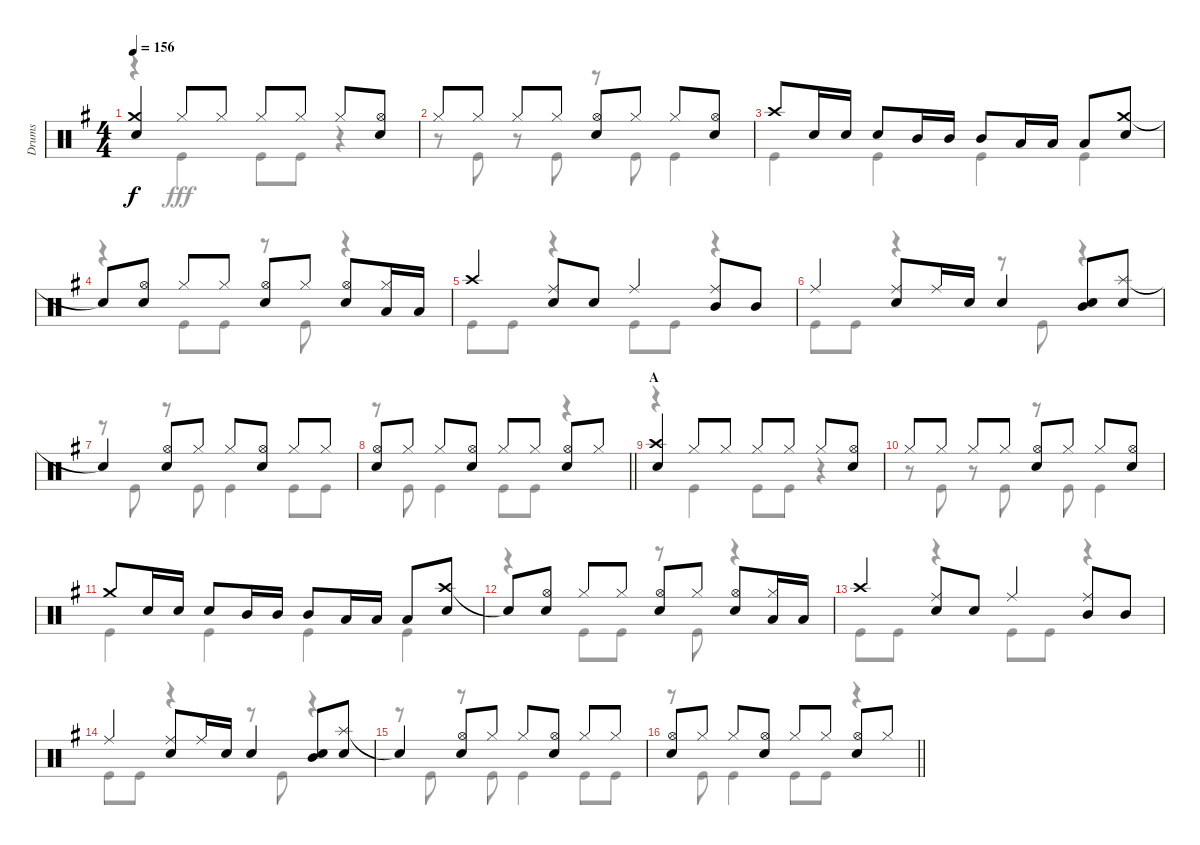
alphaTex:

\track ("Drums" "Drums") {instrument percussion}
\staff {score}
\articulation defaults
\voice
\ts (4 4)
\tempo 156
\clef neutral
\ks g
("Crash medium (hit)" "Snare (hit) 2").4{dy f} "Hi-Hat (closed)".8 "Hi-Hat (closed)".8 "Hi-Hat (closed)".8 "Hi-Hat (closed)".8 "Hi-Hat (closed)".8 ("Hi-Hat (open)" "Snare (hit) 2").8 |
"Hi-Hat (closed)".8 "Hi-Hat (closed)".8 "Hi-Hat (closed)".8 "Hi-Hat (closed)".8 ("Hi-Hat (open)" "Snare (hit) 2").8 "Hi-Hat (closed)".8 "Hi-Hat (closed)".8 ("Hi-Hat (open)" "Snare (hit) 2").8 |
"Crash high (hit)".8 "Snare (hit) 2".16 "Snare (hit) 2".16 "Snare (hit) 2".8 "Mid Tom (hit)".16 "Mid Tom (hit)".16 "Mid Tom (hit)".8 "Low Tom (hit)".16 "Low Tom (hit)".16 "Low Tom (hit)".8 ("Crash medium (hit)" "Snare (hit) 2").8 |
"Snare (hit)"{t}.8 ("Hi-Hat (open)" "Snare (hit) 2").8 "Hi-Hat (closed)".8 "Hi-Hat (closed)".8 ("Hi-Hat (open)" "Snare (hit) 2").8 "Hi-Hat (closed)".8 ("Hi-Hat (open)" "Snare (hit) 2").8 ("Hi-Hat (closed)" "Low Tom (hit)").16 "Low Tom (hit)".16 |
"Crash high (hit)".4 ("Ride (middle)" "Snare (hit) 2").8 "Snare (hit) 2".8 "Ride (middle)".4 ("Ride (middle)" "Mid Tom (hit)").8 "Mid Tom (hit)".8 |
"Ride (middle)".4 ("Ride (middle)" "Snare (hit) 2").8 "Ride (middle)".16 "Snare (hit) 2".16 "Snare (hit) 2".4 ("Mid Tom (hit)" "Snare (hit) 2").8 ("Splash (hit)" "Snare (hit) 2").8 |
"Snare (hit)"{t}.4 ("Hi-Hat (open)" "Snare (hit) 2").8 "Hi-Hat (closed)".8 "Hi-Hat (closed)".8 ("Hi-Hat (open)" "Snare (hit) 2").8 "Hi-Hat (closed)".8 "Hi-Hat (closed)".8 |
\barLineRight lightlight
("Hi-Hat (open)" "Snare (hit) 2").8 "Hi-Hat (closed)".8 "Hi-Hat (closed)".8 ("Hi-Hat (open)" "Snare (hit) 2").8 "Hi-Hat (closed)".8 "Hi-Hat (closed)".8 ("Hi-Hat (open)" "Snare (hit) 2").8 "Hi-Hat (closed)".8 |
\section ("" "A")
("Crash high (hit)" "Snare (hit) 2").4 "Hi-Hat (closed)".8 "Hi-Hat (closed)".8 "Hi-Hat (closed)".8 "Hi-Hat (closed)".8 "Hi-Hat (closed)".8 ("Hi-Hat (open)" "Snare (hit) 2").8 |
"Hi-Hat (closed)".8 "Hi-Hat (closed)".8 "Hi-Hat (closed)".8 "Hi-Hat (closed)".8 ("Hi-Hat (open)" "Snare (hit) 2").8 "Hi-Hat (closed)".8 "Hi-Hat (closed)".8 ("Hi-Hat (open)" "Snare (hit) 2").8 |
"Crash medium (hit)".8 "Snare (hit) 2".16 "Snare (hit) 2".16 "Snare (hit) 2".8 "Mid Tom (hit)".16 "Mid Tom (hit)".16 "Mid Tom (hit)".8 "Low Tom (hit)".16 "Low Tom (hit)".16 "Low Tom (hit)".8 ("Crash high (hit)" "Snare (hit) 2").8 |
"Snare (hit)"{t}.8 ("Hi-Hat (open)" "Snare (hit) 2").8 "Hi-Hat (closed)".8 "Hi-Hat (closed)".8 ("Hi-Hat (open)" "Snare (hit) 2").8 "Hi-Hat (closed)".8 ("Hi-Hat (open)" "Snare (hit) 2").8 ("Hi-Hat (closed)" "Low Tom (hit)").16 "Low Tom (hit)".16 |
"Crash high (hit)".4 ("Ride (middle)" "Snare (hit) 2").8 "Snare (hit) 2".8 "Ride (middle)".4 ("Ride (middle)" "Mid Tom (hit)").8 "Mid Tom (hit)".8 |
"Ride (middle)".4 ("Ride (middle)" "Snare (hit) 2").8 "Ride (middle)".16 "Snare (hit) 2".16 "Snare (hit) 2".4 ("Mid Tom (hit)" "Snare (hit) 2").8 ("Splash (hit)" "Snare (hit) 2").8 |
"Snare (hit)"{t}.4 ("Hi-Hat (open)" "Snare (hit) 2").8 "Hi-Hat (closed)".8 "Hi-Hat (closed)".8 ("Hi-Hat (open)" "Snare (hit) 2").8 "Hi-Hat (closed)".8 "Hi-Hat (closed)".8 |
\barLineRight lightlight
("Hi-Hat (open)" "Snare (hit) 2").8 "Hi-Hat (closed)".8 "Hi-Hat (closed)".8 ("Hi-Hat (open)" "Snare (hit) 2").8 "Hi-Hat (closed)".8 "Hi-Hat (closed)".8 ("Hi-Hat (open)" "Snare (hit) 2").8 "Hi-Hat (closed)".8
\voice
\clef neutral
\ottava regular
\simile none
\ks g
r.4{dy fff} "Kick (hit)".4 "Kick (hit)".8 "Kick (hit)".8 r.4 |
r.8 "Kick (hit)".8 r.8 "Kick (hit)".8 r.8 "Kick (hit)".8 "Kick (hit)".4 |
"Kick (hit)".4 "Kick (hit)".4 "Kick (hit)".4 "Kick (hit)".4 |
r.4 "Kick (hit)".8 "Kick (hit)".8 r.8 "Kick (hit)".8 r.4 |
"Kick (hit)".8 "Kick (hit)".8 r.4 "Kick (hit)".8 "Kick (hit)".8 r.4 |
"Kick (hit)".8 "Kick (hit)".8 r.4 r.8 "Kick (hit)".8 r.4 |
r.8 "Kick (hit)".8 r.8 "Kick (hit)".8 "Kick (hit)".4 "Kick (hit)".8 "Kick (hit)".8 |
\barLineRight lightlight
r.8 "Kick (hit)".8 "Kick (hit)".4 "Kick (hit)".8 "Kick (hit)".8 r.4 |
r.4 "Kick (hit)".4 "Kick (hit)".8 "Kick (hit)".8 r.4 |
r.8 "Kick (hit)".8 r.8 "Kick (hit)".8 r.8 "Kick (hit)".8 "Kick (hit)".4 |
"Kick (hit)".4 "Kick (hit)".4 "Kick (hit)".4 "Kick (hit)".4 |
r.4 "Kick (hit)".8 "Kick (hit)".8 r.8 "Kick (hit)".8 r.4 |
"Kick (hit)".8 "Kick (hit)".8 r.4 "Kick (hit)".8 "Kick (hit)".8 r.4 |
"Kick (hit)".8 "Kick (hit)".8 r.4 r.8 "Kick (hit)".8 r.4 |
r.8 "Kick (hit)".8 r.8 "Kick (hit)".8 "Kick (hit)".4 "Kick (hit)".8 "Kick (hit)".8 |
\barLineRight lightlight
r.8 "Kick (hit)".8 "Kick (hit)".4 "Kick (hit)".8 "Kick (hit)".8 r.4
